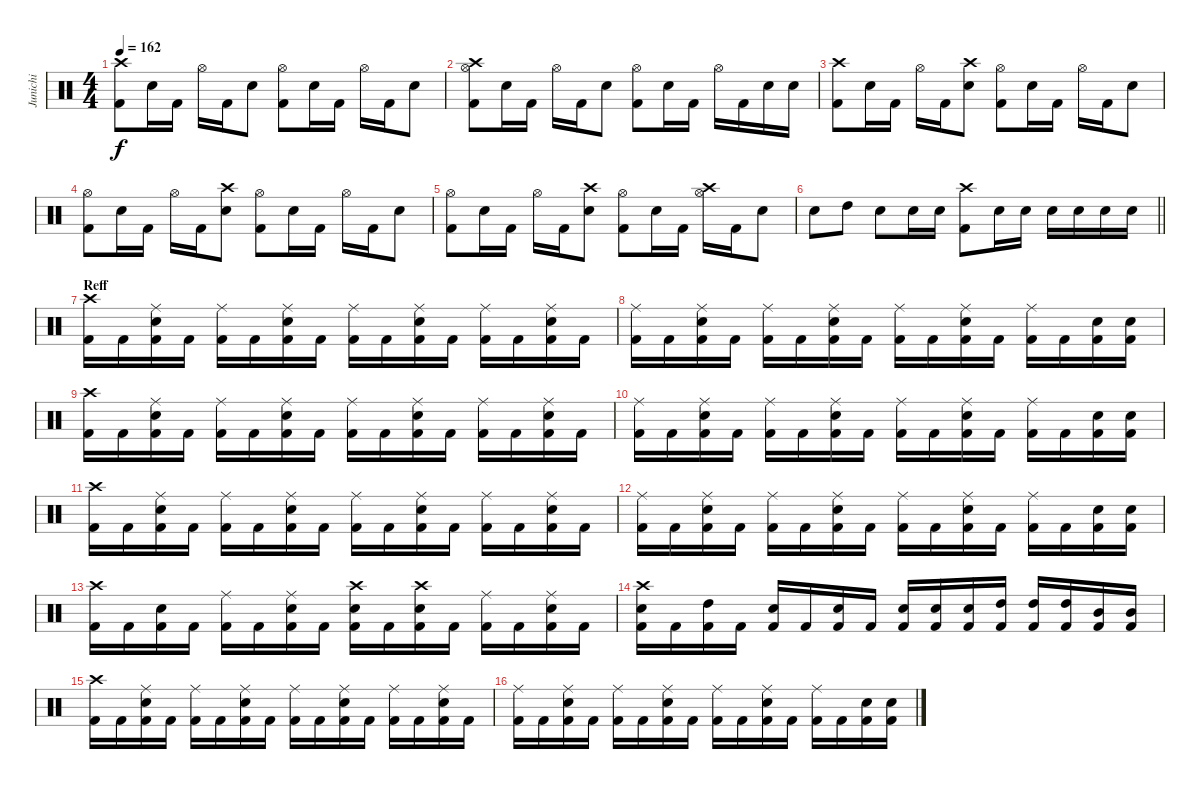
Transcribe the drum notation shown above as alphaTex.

\track ("Junichi" "Junichi") {instrument percussion}
\staff {score}
\articulation defaults
\ts (4 4)
\tempo 162
\clef neutral
\ks c
("Crash high (hit)" "Kick (hit) 2").8{dy f} "Electric Snare (hit)".16 "Kick (hit) 2".16 "Hi-Hat (open)".16 "Kick (hit) 2".16 "Electric Snare (hit)".8 ("Hi-Hat (open)" "Kick (hit) 2").8 "Electric Snare (hit)".16 "Kick (hit) 2".16 "Hi-Hat (open)".16 "Kick (hit) 2".16 "Electric Snare (hit)".8 |
("Crash high (hit)" "Hi-Hat (open)" "Kick (hit) 2").8 "Electric Snare (hit)".16 "Kick (hit) 2".16 "Hi-Hat (open)".16 "Kick (hit) 2".16 "Electric Snare (hit)".8 ("Hi-Hat (open)" "Kick (hit) 2").8 "Electric Snare (hit)".16 "Kick (hit) 2".16 "Hi-Hat (open)".16 "Kick (hit) 2".16 "Electric Snare (hit)".16 "Electric Snare (hit)".16 |
("Crash high (hit)" "Kick (hit) 2").8 "Electric Snare (hit)".16 "Kick (hit) 2".16 "Hi-Hat (open)".16 "Kick (hit) 2".16 ("Crash high (hit)" "Electric Snare (hit)").8 ("Hi-Hat (open)" "Kick (hit) 2").8 "Electric Snare (hit)".16 "Kick (hit) 2".16 "Hi-Hat (open)".16 "Kick (hit) 2".16 "Electric Snare (hit)".8 |
("Hi-Hat (open)" "Kick (hit) 2").8 "Electric Snare (hit)".16 "Kick (hit) 2".16 "Hi-Hat (open)".16 "Kick (hit) 2".16 ("Crash high (hit)" "Electric Snare (hit)").8 ("Hi-Hat (open)" "Kick (hit) 2").8 "Electric Snare (hit)".16 "Kick (hit) 2".16 "Hi-Hat (open)".16 "Kick (hit) 2".16 "Electric Snare (hit)".8 |
("Hi-Hat (open)" "Kick (hit) 2").8 "Electric Snare (hit)".16 "Kick (hit) 2".16 "Hi-Hat (open)".16 "Kick (hit) 2".16 ("Crash high (hit)" "Electric Snare (hit)").8 ("Hi-Hat (open)" "Kick (hit) 2").8 "Electric Snare (hit)".16 "Kick (hit) 2".16 ("Crash high (hit)" "Hi-Hat (open)").16 "Kick (hit) 2".16 "Electric Snare (hit)".8 |
\barLineRight lightlight "Electric Snare (hit)".8 "High Tom (hit)".8 "Electric Snare (hit)".8 "Electric Snare (hit)".16 "Electric Snare (hit)".16
("Crash high (hit)" "Kick (hit) 2").8 "Electric Snare (hit)".16 "Electric Snare (hit)".16 "Electric Snare (hit)".16 "Electric Snare (hit)".16 "Electric Snare (hit)".16 "Electric Snare (hit)".16 |
\section ("" "Reff")
("Crash high (hit)" "Kick (hit) 2").16 "Kick (hit) 2".16 ("Ride (middle)" "Electric Snare (hit)" "Kick (hit) 2").16 "Kick (hit) 2".16 ("Ride (middle)" "Kick (hit) 2").16 "Kick (hit) 2".16 ("Ride (middle)" "Electric Snare (hit)" "Kick (hit) 2").16 "Kick (hit) 2".16 ("Ride (middle)" "Kick (hit) 2").16 "Kick (hit) 2".16 ("Ride (middle)" "Electric Snare (hit)" "Kick (hit) 2").16 "Kick (hit) 2".16 ("Ride (middle)" "Kick (hit) 2").16 "Kick (hit) 2".16 ("Ride (middle)" "Electric Snare (hit)" "Kick (hit) 2").16 "Kick (hit) 2".16 |
("Ride (middle)" "Kick (hit) 2").16 "Kick (hit) 2".16 ("Ride (middle)" "Electric Snare (hit)" "Kick (hit) 2").16 "Kick (hit) 2".16 ("Ride (middle)" "Kick (hit) 2").16 "Kick (hit) 2".16 ("Ride (middle)" "Electric Snare (hit)" "Kick (hit) 2").16 "Kick (hit) 2".16 ("Ride (middle)" "Kick (hit) 2").16 "Kick (hit) 2".16 ("Ride (middle)" "Electric Snare (hit)" "Kick (hit) 2").16 "Kick (hit) 2".16 ("Ride (middle)" "Kick (hit) 2").16 "Kick (hit) 2".16 ("Electric Snare (hit)" "Kick (hit) 2").16 ("Electric Snare (hit)" "Kick (hit) 2").16 |
("Crash high (hit)" "Kick (hit) 2").16 "Kick (hit) 2".16 ("Ride (middle)" "Electric Snare (hit)" "Kick (hit) 2").16 "Kick (hit) 2".16 ("Ride (middle)" "Kick (hit) 2").16 "Kick (hit) 2".16 ("Ride (middle)" "Electric Snare (hit)" "Kick (hit) 2").16 "Kick (hit) 2".16 ("Ride (middle)" "Kick (hit) 2").16 "Kick (hit) 2".16 ("Ride (middle)" "Electric Snare (hit)" "Kick (hit) 2").16 "Kick (hit) 2".16 ("Ride (middle)" "Kick (hit) 2").16 "Kick (hit) 2".16 ("Ride (middle)" "Electric Snare (hit)" "Kick (hit) 2").16 "Kick (hit) 2".16 |
("Ride (middle)" "Kick (hit) 2").16 "Kick (hit) 2".16 ("Ride (middle)" "Electric Snare (hit)" "Kick (hit) 2").16 "Kick (hit) 2".16 ("Ride (middle)" "Kick (hit) 2").16 "Kick (hit) 2".16 ("Ride (middle)" "Electric Snare (hit)" "Kick (hit) 2").16 "Kick (hit) 2".16 ("Ride (middle)" "Kick (hit) 2").16 "Kick (hit) 2".16 ("Ride (middle)" "Electric Snare (hit)" "Kick (hit) 2").16 "Kick (hit) 2".16 ("Ride (middle)" "Kick (hit) 2").16 "Kick (hit) 2".16 ("Electric Snare (hit)" "Kick (hit) 2").16 ("Electric Snare (hit)" "Kick (hit) 2").16 |
("Crash high (hit)" "Kick (hit) 2").16 "Kick (hit) 2".16 ("Ride (middle)" "Electric Snare (hit)" "Kick (hit) 2").16 "Kick (hit) 2".16 ("Ride (middle)" "Kick (hit) 2").16 "Kick (hit) 2".16 ("Ride (middle)" "Electric Snare (hit)" "Kick (hit) 2").16 "Kick (hit) 2".16 ("Ride (middle)" "Kick (hit) 2").16 "Kick (hit) 2".16 ("Ride (middle)" "Electric Snare (hit)" "Kick (hit) 2").16 "Kick (hit) 2".16 ("Ride (middle)" "Kick (hit) 2").16 "Kick (hit) 2".16 ("Ride (middle)" "Electric Snare (hit)" "Kick (hit) 2").16 "Kick (hit) 2".16 |
("Ride (middle)" "Kick (hit) 2").16 "Kick (hit) 2".16 ("Ride (middle)" "Electric Snare (hit)" "Kick (hit) 2").16 "Kick (hit) 2".16 ("Ride (middle)" "Kick (hit) 2").16 "Kick (hit) 2".16 ("Ride (middle)" "Electric Snare (hit)" "Kick (hit) 2").16 "Kick (hit) 2".16 ("Ride (middle)" "Kick (hit) 2").16 "Kick (hit) 2".16 ("Ride (middle)" "Electric Snare (hit)" "Kick (hit) 2").16 "Kick (hit) 2".16 ("Ride (middle)" "Kick (hit) 2").16 "Kick (hit) 2".16 ("Electric Snare (hit)" "Kick (hit) 2").16 ("Electric Snare (hit)" "Kick (hit) 2").16 |
("Crash high (hit)" "Kick (hit) 2").16 "Kick (hit) 2".16 ("Electric Snare (hit)" "Kick (hit) 2").16 "Kick (hit) 2".16 ("Ride (middle)" "Kick (hit) 2").16 "Kick (hit) 2".16 ("Ride (middle)" "Electric Snare (hit)" "Kick (hit) 2").16 "Kick (hit) 2".16 ("Crash high (hit)" "Electric Snare (hit)" "Kick (hit) 2").16 "Kick (hit) 2".16 ("Crash high (hit)" "Electric Snare (hit)" "Kick (hit) 2").16 "Kick (hit) 2".16 ("Ride (middle)" "Kick (hit) 2").16 "Kick (hit) 2".16 ("Ride (middle)" "Electric Snare (hit)" "Kick (hit) 2").16 "Kick (hit) 2".16 |
("Crash high (hit)" "Electric Snare (hit)" "Kick (hit) 2").16 "Kick (hit) 2".16 ("High Tom (hit)" "Kick (hit) 2").16 "Kick (hit) 2".16 ("Electric Snare (hit)" "Kick (hit) 2").16 "Kick (hit) 2".16 ("Electric Snare (hit)" "Kick (hit) 2").16 "Kick (hit) 2".16 ("Electric Snare (hit)" "Kick (hit) 2").16 ("Electric Snare (hit)" "Kick (hit) 2").16 ("Electric Snare (hit)" "Kick (hit) 2").16 ("High Tom (hit)" "Kick (hit) 2").16 ("High Tom (hit)" "Kick (hit) 2").16 ("High Tom (hit)" "Kick (hit) 2").16 ("Mid Tom (hit)" "Kick (hit) 2").16 ("Mid Tom (hit)" "Kick (hit) 2").16 |
("Crash high (hit)" "Kick (hit) 2").16 "Kick (hit) 2".16 ("Ride (middle)" "Electric Snare (hit)" "Kick (hit) 2").16 "Kick (hit) 2".16 ("Ride (middle)" "Kick (hit) 2").16 "Kick (hit) 2".16 ("Ride (middle)" "Electric Snare (hit)" "Kick (hit) 2").16 "Kick (hit) 2".16 ("Ride (middle)" "Kick (hit) 2").16 "Kick (hit) 2".16 ("Ride (middle)" "Electric Snare (hit)" "Kick (hit) 2").16 "Kick (hit) 2".16 ("Ride (middle)" "Kick (hit) 2").16 "Kick (hit) 2".16 ("Ride (middle)" "Electric Snare (hit)" "Kick (hit) 2").16 "Kick (hit) 2".16 |
("Ride (middle)" "Kick (hit) 2").16 "Kick (hit) 2".16 ("Ride (middle)" "Electric Snare (hit)" "Kick (hit) 2").16 "Kick (hit) 2".16 ("Ride (middle)" "Kick (hit) 2").16 "Kick (hit) 2".16 ("Ride (middle)" "Electric Snare (hit)" "Kick (hit) 2").16 "Kick (hit) 2".16 ("Ride (middle)" "Kick (hit) 2").16 "Kick (hit) 2".16 ("Ride (middle)" "Electric Snare (hit)" "Kick (hit) 2").16 "Kick (hit) 2".16 ("Ride (middle)" "Kick (hit) 2").16 "Kick (hit) 2".16 ("Electric Snare (hit)" "Kick (hit) 2").16 ("Electric Snare (hit)" "Kick (hit) 2").16
